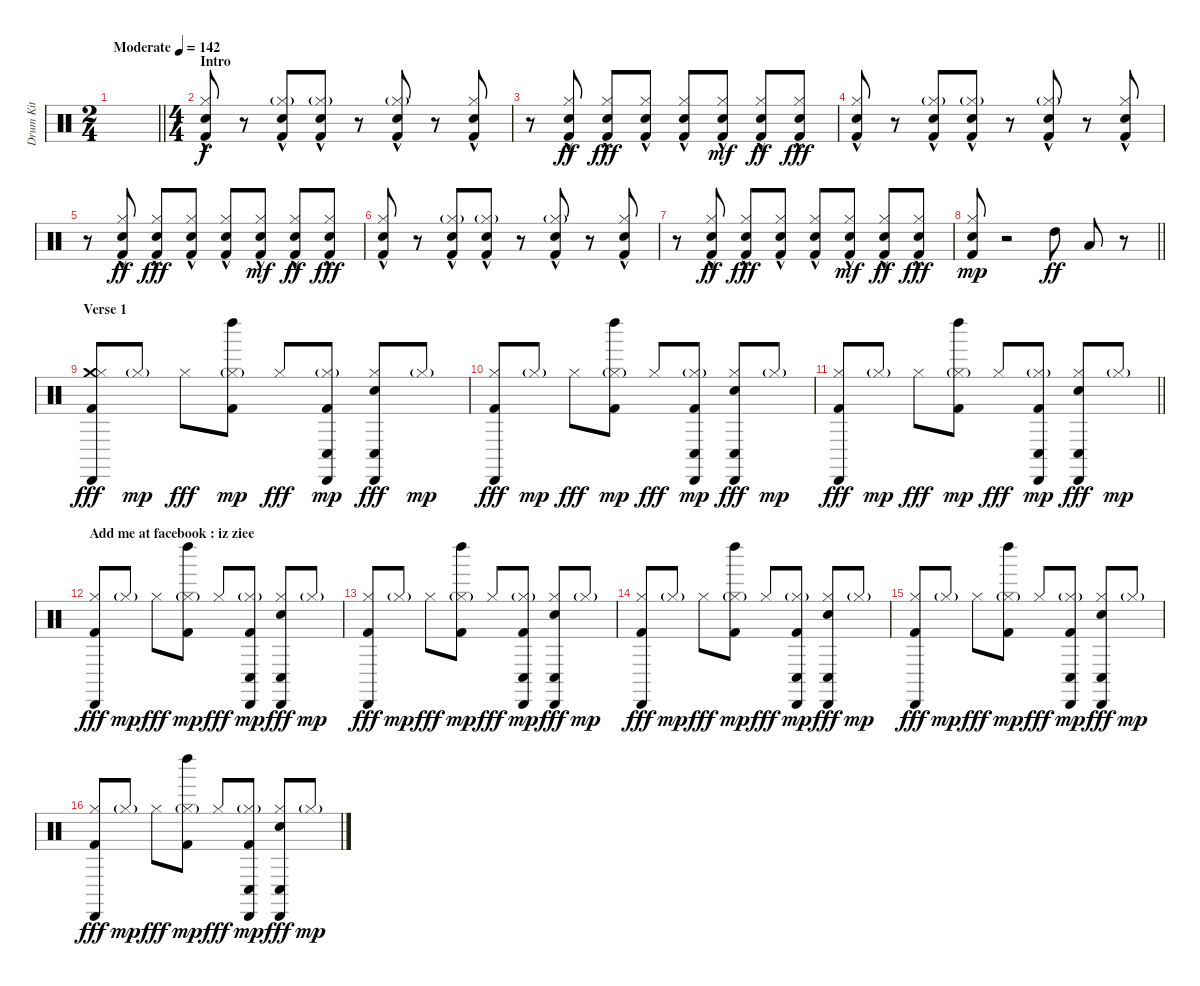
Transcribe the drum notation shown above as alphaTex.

\track ("Drum Kit" "Drum Kit") {instrument percussion}
\staff {score}
\articulation defaults
\ts (2 4)
\tempo (142 "Moderate")
\clef neutral
\barLineRight lightlight
\ks c
|
\ts (4 4)
\section ("" "Intro")
("Kick (hit) 2" "Hi-Hat (closed)" "Snare (hit) 2"{hac}).8 r.8 ("Kick (hit) 2" "Hi-Hat (closed)"{g} "Snare (hit) 2"{hac}).8 ("Kick (hit) 2" "Hi-Hat (closed)"{g} "Snare (hit) 2"{hac}).8 r.8 ("Kick (hit) 2" "Hi-Hat (closed)"{g} "Snare (hit) 2"{hac}).8 r.8 ("Kick (hit) 2" "Hi-Hat (closed)" "Snare (hit) 2"{hac}).8 |
r.8 ("Kick (hit) 2" "Snare (hit) 2"{hac} "Hi-Hat (closed)").8{dy ff} ("Kick (hit) 2" "Snare (hit) 2"{hac} "Hi-Hat (closed)").8{dy fff} ("Kick (hit) 2" "Snare (hit) 2"{hac} "Hi-Hat (closed)").8 ("Kick (hit) 2" "Snare (hit) 2"{hac} "Hi-Hat (closed)").8 ("Kick (hit) 2" "Snare (hit) 2"{hac} "Hi-Hat (closed)").8{dy mf} ("Hi-Hat (closed)" "Kick (hit) 2" "Snare (hit) 2"{hac}).8{dy ff} ("Hi-Hat (closed)" "Kick (hit) 2" "Snare (hit) 2"{hac}).8{dy fff} |
("Kick (hit) 2" "Hi-Hat (closed)" "Snare (hit) 2"{hac}).8 r.8 ("Kick (hit) 2" "Hi-Hat (closed)"{g} "Snare (hit) 2"{hac}).8 ("Kick (hit) 2" "Hi-Hat (closed)"{g} "Snare (hit) 2"{hac}).8 r.8 ("Kick (hit) 2" "Hi-Hat (closed)"{g} "Snare (hit) 2"{hac}).8 r.8 ("Kick (hit) 2" "Hi-Hat (closed)" "Snare (hit) 2"{hac}).8 |
r.8 ("Kick (hit) 2" "Snare (hit) 2"{hac} "Hi-Hat (closed)").8{dy ff} ("Kick (hit) 2" "Snare (hit) 2"{hac} "Hi-Hat (closed)").8{dy fff} ("Kick (hit) 2" "Snare (hit) 2"{hac} "Hi-Hat (closed)").8 ("Kick (hit) 2" "Snare (hit) 2"{hac} "Hi-Hat (closed)").8 ("Kick (hit) 2" "Snare (hit) 2"{hac} "Hi-Hat (closed)").8{dy mf} ("Hi-Hat (closed)" "Kick (hit) 2" "Snare (hit) 2"{hac}).8{dy ff} ("Hi-Hat (closed)" "Kick (hit) 2" "Snare (hit) 2"{hac}).8{dy fff} |
("Kick (hit) 2" "Hi-Hat (closed)" "Snare (hit) 2"{hac}).8 r.8 ("Kick (hit) 2" "Hi-Hat (closed)"{g} "Snare (hit) 2"{hac}).8 ("Kick (hit) 2" "Hi-Hat (closed)"{g} "Snare (hit) 2"{hac}).8 r.8 ("Kick (hit) 2" "Hi-Hat (closed)"{g} "Snare (hit) 2"{hac}).8 r.8 ("Kick (hit) 2" "Hi-Hat (closed)" "Snare (hit) 2"{hac}).8 |
r.8 ("Kick (hit) 2" "Snare (hit) 2"{hac} "Hi-Hat (closed)").8{dy ff} ("Kick (hit) 2" "Snare (hit) 2"{hac} "Hi-Hat (closed)").8{dy fff} ("Kick (hit) 2" "Snare (hit) 2"{hac} "Hi-Hat (closed)").8 ("Kick (hit) 2" "Snare (hit) 2"{hac} "Hi-Hat (closed)").8 ("Kick (hit) 2" "Snare (hit) 2"{hac} "Hi-Hat (closed)").8{dy mf} ("Hi-Hat (closed)" "Kick (hit) 2" "Snare (hit) 2"{hac}).8{dy ff} ("Hi-Hat (closed)" "Kick (hit) 2" "Snare (hit) 2"{hac}).8{dy fff} |
\barLineRight lightlight
("Hi-Hat (closed)" "Snare (hit) 2" "Kick (hit) 2").8{dy mp} r.2 "High Tom (hit)".8{dy ff} "Low Tom (hit)".8 r.8 |
\section ("" "Verse 1")
("Crash medium (hit)" "Cabasa (hit)" "Kick (hit) 2" "Hi-Hat (closed)").8{dy fff} "Hi-Hat (closed)"{g}.8{dy mp} "Hi-Hat (closed)".8{dy fff} ("Kick (hit) 2" "Left Maraca (hit)" "Hi-Hat (closed)"{g}).8{dy mp} "Hi-Hat (closed)".8{dy fff} ("Cabasa (hit)" "Kick (hit) 2" "Conga low (hit)" "Hi-Hat (closed)"{g}).8{dy mp} ("Conga low (hit)" "Snare (hit) 2" "Cabasa (hit)" "Hi-Hat (closed)").8{dy fff} "Hi-Hat (closed)"{g}.8{dy mp} |
("Cabasa (hit)" "Kick (hit) 2" "Hi-Hat (closed)").8{dy fff} "Hi-Hat (closed)"{g}.8{dy mp} "Hi-Hat (closed)".8{dy fff} ("Kick (hit) 2" "Hi-Hat (closed)"{g} "Left Maraca (hit)").8{dy mp} "Hi-Hat (closed)".8{dy fff} ("Kick (hit) 2" "Conga low (hit)" "Hi-Hat (closed)"{g} "Cabasa (hit)").8{dy mp} ("Conga low (hit)" "Snare (hit) 2" "Cabasa (hit)" "Hi-Hat (closed)").8{dy fff} "Hi-Hat (closed)"{g}.8{dy mp} |
\barLineRight lightlight
("Cabasa (hit)" "Kick (hit) 2" "Hi-Hat (closed)").8{dy fff} "Hi-Hat (closed)"{g}.8{dy mp} "Hi-Hat (closed)".8{dy fff} ("Kick (hit) 2" "Hi-Hat (closed)"{g} "Left Maraca (hit)").8{dy mp} "Hi-Hat (closed)".8{dy fff} ("Kick (hit) 2" "Conga low (hit)" "Hi-Hat (closed)"{g} "Cabasa (hit)").8{dy mp} ("Conga low (hit)" "Snare (hit) 2" "Cabasa (hit)" "Hi-Hat (closed)").8{dy fff} "Hi-Hat (closed)"{g}.8{dy mp} |
\section ("" "Add me at facebook : iz ziee")
("Cabasa (hit)" "Kick (hit) 2" "Hi-Hat (closed)").8{dy fff} "Hi-Hat (closed)"{g}.8{dy mp} "Hi-Hat (closed)".8{dy fff} ("Kick (hit) 2" "Hi-Hat (closed)"{g} "Left Maraca (hit)").8{dy mp} "Hi-Hat (closed)".8{dy fff} ("Kick (hit) 2" "Conga low (hit)" "Hi-Hat (closed)"{g} "Cabasa (hit)").8{dy mp} ("Conga low (hit)" "Snare (hit) 2" "Cabasa (hit)" "Hi-Hat (closed)").8{dy fff} "Hi-Hat (closed)"{g}.8{dy mp} |
("Cabasa (hit)" "Kick (hit) 2" "Hi-Hat (closed)").8{dy fff} "Hi-Hat (closed)"{g}.8{dy mp} "Hi-Hat (closed)".8{dy fff} ("Kick (hit) 2" "Hi-Hat (closed)"{g} "Left Maraca (hit)").8{dy mp} "Hi-Hat (closed)".8{dy fff} ("Kick (hit) 2" "Conga low (hit)" "Hi-Hat (closed)"{g} "Cabasa (hit)").8{dy mp} ("Conga low (hit)" "Snare (hit) 2" "Cabasa (hit)" "Hi-Hat (closed)").8{dy fff} "Hi-Hat (closed)"{g}.8{dy mp} |
("Cabasa (hit)" "Kick (hit) 2" "Hi-Hat (closed)").8{dy fff} "Hi-Hat (closed)"{g}.8{dy mp} "Hi-Hat (closed)".8{dy fff} ("Kick (hit) 2" "Hi-Hat (closed)"{g} "Left Maraca (hit)").8{dy mp} "Hi-Hat (closed)".8{dy fff} ("Kick (hit) 2" "Conga low (hit)" "Hi-Hat (closed)"{g} "Cabasa (hit)").8{dy mp} ("Conga low (hit)" "Snare (hit) 2" "Cabasa (hit)" "Hi-Hat (closed)").8{dy fff} "Hi-Hat (closed)"{g}.8{dy mp} |
("Cabasa (hit)" "Kick (hit) 2" "Hi-Hat (closed)").8{dy fff} "Hi-Hat (closed)"{g}.8{dy mp} "Hi-Hat (closed)".8{dy fff} ("Kick (hit) 2" "Hi-Hat (closed)"{g} "Left Maraca (hit)").8{dy mp} "Hi-Hat (closed)".8{dy fff} ("Kick (hit) 2" "Conga low (hit)" "Hi-Hat (closed)"{g} "Cabasa (hit)").8{dy mp} ("Conga low (hit)" "Snare (hit) 2" "Cabasa (hit)" "Hi-Hat (closed)").8{dy fff} "Hi-Hat (closed)"{g}.8{dy mp} |
("Cabasa (hit)" "Kick (hit) 2" "Hi-Hat (closed)").8{dy fff} "Hi-Hat (closed)"{g}.8{dy mp} "Hi-Hat (closed)".8{dy fff} ("Kick (hit) 2" "Hi-Hat (closed)"{g} "Left Maraca (hit)").8{dy mp} "Hi-Hat (closed)".8{dy fff} ("Kick (hit) 2" "Conga low (hit)" "Hi-Hat (closed)"{g} "Cabasa (hit)").8{dy mp} ("Conga low (hit)" "Snare (hit) 2" "Cabasa (hit)" "Hi-Hat (closed)").8{dy fff} "Hi-Hat (closed)"{g}.8{dy mp}
